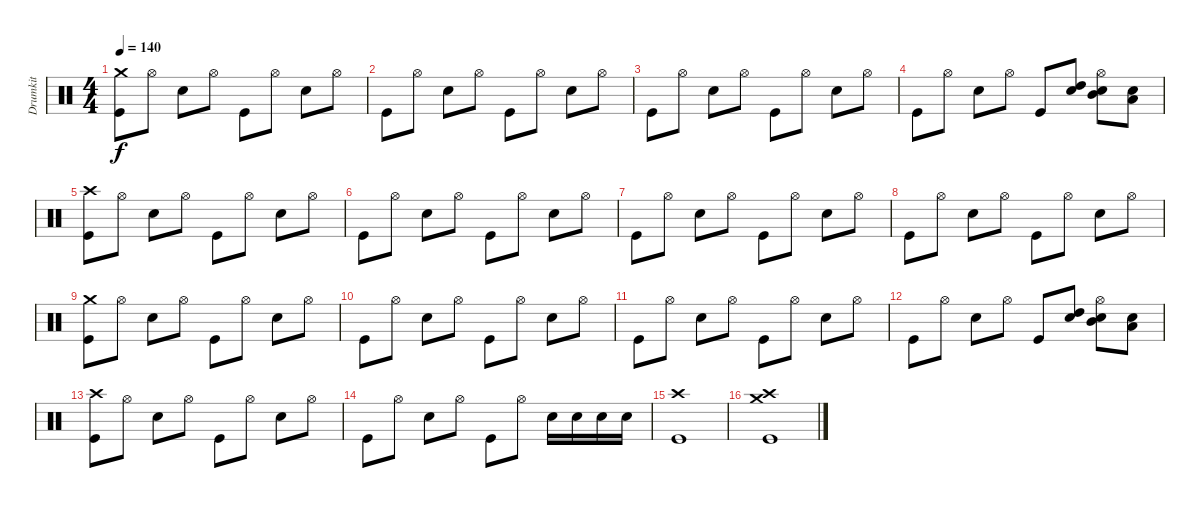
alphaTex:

\track ("Drumkit" "Drumkit") {instrument percussion}
\staff {score}
\articulation defaults
\ts (4 4)
\tempo 140
\clef neutral
\ks c
("Crash medium (hit)" "Kick (hit)").8{dy f} "Hi-Hat (open)".8 "Snare (hit) 2".8 "Hi-Hat (open)".8 "Kick (hit)".8 "Hi-Hat (open)".8 "Snare (hit) 2".8 "Hi-Hat (open)".8 |
"Kick (hit)".8 "Hi-Hat (open)".8 "Snare (hit) 2".8 "Hi-Hat (open)".8 "Kick (hit)".8 "Hi-Hat (open)".8 "Snare (hit) 2".8 "Hi-Hat (open)".8 |
"Kick (hit)".8 "Hi-Hat (open)".8 "Snare (hit) 2".8 "Hi-Hat (open)".8 "Kick (hit)".8 "Hi-Hat (open)".8 "Snare (hit) 2".8 "Hi-Hat (open)".8 |
"Kick (hit)".8 "Hi-Hat (open)".8 "Snare (hit) 2".8 "Hi-Hat (open)".8 "Kick (hit)".8 ("High Tom (hit)" "Snare (hit) 2").8 ("Hi-Hat (open)" "Mid Tom (hit)" "Snare (hit) 2").8 ("Low Tom (hit)" "Snare (hit) 2").8 |
("Crash high (hit)" "Kick (hit)").8 "Hi-Hat (open)".8 "Snare (hit) 2".8 "Hi-Hat (open)".8 "Kick (hit)".8 "Hi-Hat (open)".8 "Snare (hit) 2".8 "Hi-Hat (open)".8 |
"Kick (hit)".8 "Hi-Hat (open)".8 "Snare (hit) 2".8 "Hi-Hat (open)".8 "Kick (hit)".8 "Hi-Hat (open)".8 "Snare (hit) 2".8 "Hi-Hat (open)".8 |
"Kick (hit)".8 "Hi-Hat (open)".8 "Snare (hit) 2".8 "Hi-Hat (open)".8 "Kick (hit)".8 "Hi-Hat (open)".8 "Snare (hit) 2".8 "Hi-Hat (open)".8 |
"Kick (hit)".8 "Hi-Hat (open)".8 "Snare (hit) 2".8 "Hi-Hat (open)".8 "Kick (hit)".8 "Hi-Hat (open)".8 "Snare (hit) 2".8 "Hi-Hat (open)".8 |
("Crash medium (hit)" "Kick (hit)").8 "Hi-Hat (open)".8 "Snare (hit) 2".8 "Hi-Hat (open)".8 "Kick (hit)".8 "Hi-Hat (open)".8 "Snare (hit) 2".8 "Hi-Hat (open)".8 |
"Kick (hit)".8 "Hi-Hat (open)".8 "Snare (hit) 2".8 "Hi-Hat (open)".8 "Kick (hit)".8 "Hi-Hat (open)".8 "Snare (hit) 2".8 "Hi-Hat (open)".8 |
"Kick (hit)".8 "Hi-Hat (open)".8 "Snare (hit) 2".8 "Hi-Hat (open)".8 "Kick (hit)".8 "Hi-Hat (open)".8 "Snare (hit) 2".8 "Hi-Hat (open)".8 |
"Kick (hit)".8 "Hi-Hat (open)".8 "Snare (hit) 2".8 "Hi-Hat (open)".8 "Kick (hit)".8 ("High Tom (hit)" "Snare (hit) 2").8 ("Hi-Hat (open)" "Mid Tom (hit)" "Snare (hit) 2").8 ("Low Tom (hit)" "Snare (hit) 2").8 |
("Crash high (hit)" "Kick (hit)").8 "Hi-Hat (open)".8 "Snare (hit) 2".8 "Hi-Hat (open)".8 "Kick (hit)".8 "Hi-Hat (open)".8 "Snare (hit) 2".8 "Hi-Hat (open)".8 |
"Kick (hit)".8 "Hi-Hat (open)".8 "Snare (hit) 2".8 "Hi-Hat (open)".8 "Kick (hit)".8 "Hi-Hat (open)".8 "Snare (hit) 2".16 "Snare (hit) 2".16 "Snare (hit) 2".16 "Snare (hit) 2".16 |
("Crash high (hit)" "Kick (hit)").1 |
("Crash high (hit)" "Crash medium (hit)" "Kick (hit)").1
